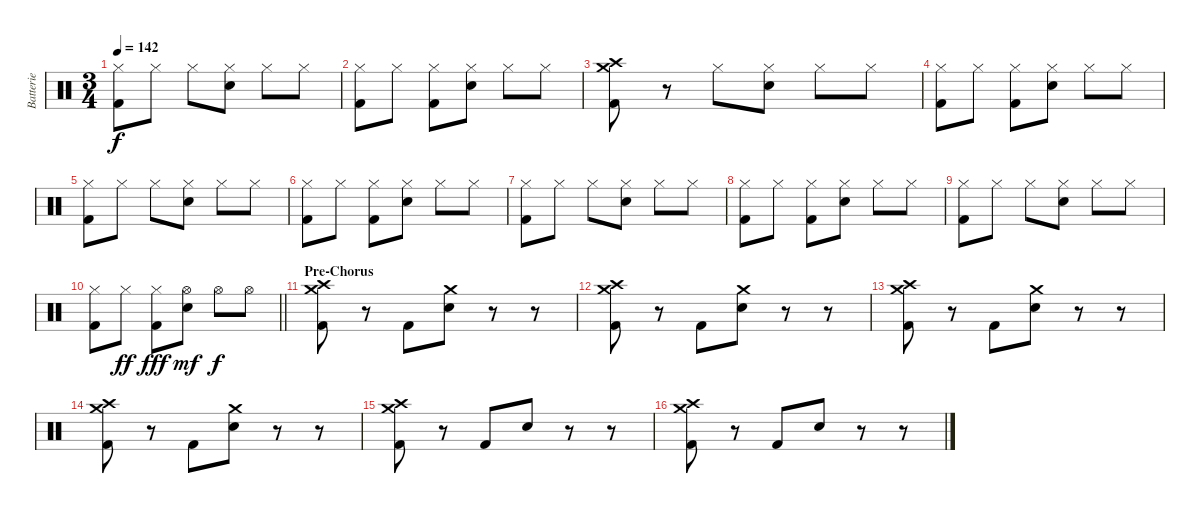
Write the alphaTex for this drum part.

\track ("Batterie" "Batterie") {instrument percussion}
\staff {score}
\articulation defaults
\ts (3 4)
\tempo 142
\clef neutral
\ks c
("Hi-Hat (closed)" "Kick (hit) 2").8{dy f} "Hi-Hat (closed)".8 "Hi-Hat (closed)".8 ("Hi-Hat (closed)" "Electric Snare (hit)").8 "Hi-Hat (closed)".8 "Hi-Hat (closed)".8 |
("Hi-Hat (closed)" "Kick (hit) 2").8 "Hi-Hat (closed)".8 ("Hi-Hat (closed)" "Kick (hit) 2").8 ("Hi-Hat (closed)" "Electric Snare (hit)").8 "Hi-Hat (closed)".8 "Hi-Hat (closed)".8 |
("Crash medium (hit)" "Crash high (hit)" "Kick (hit) 2").8 r.8 "Hi-Hat (closed)".8 ("Hi-Hat (closed)" "Electric Snare (hit)").8 "Hi-Hat (closed)".8 "Hi-Hat (closed)".8 |
("Hi-Hat (closed)" "Kick (hit) 2").8 "Hi-Hat (closed)".8 ("Hi-Hat (closed)" "Kick (hit) 2").8 ("Hi-Hat (closed)" "Electric Snare (hit)").8 "Hi-Hat (closed)".8 "Hi-Hat (closed)".8 |
("Hi-Hat (closed)" "Kick (hit) 2").8 "Hi-Hat (closed)".8 "Hi-Hat (closed)".8 ("Hi-Hat (closed)" "Electric Snare (hit)").8 "Hi-Hat (closed)".8 "Hi-Hat (closed)".8 |
("Hi-Hat (closed)" "Kick (hit) 2").8 "Hi-Hat (closed)".8 ("Hi-Hat (closed)" "Kick (hit) 2").8 ("Hi-Hat (closed)" "Electric Snare (hit)").8 "Hi-Hat (closed)".8 "Hi-Hat (closed)".8 |
("Hi-Hat (closed)" "Kick (hit) 2").8 "Hi-Hat (closed)".8 "Hi-Hat (closed)".8 ("Hi-Hat (closed)" "Electric Snare (hit)").8 "Hi-Hat (closed)".8 "Hi-Hat (closed)".8 |
("Hi-Hat (closed)" "Kick (hit) 2").8 "Hi-Hat (closed)".8 ("Hi-Hat (closed)" "Kick (hit) 2").8 ("Hi-Hat (closed)" "Electric Snare (hit)").8 "Hi-Hat (closed)".8 "Hi-Hat (closed)".8 |
("Hi-Hat (closed)" "Kick (hit) 2").8 "Hi-Hat (closed)".8 "Hi-Hat (closed)".8 ("Hi-Hat (closed)" "Electric Snare (hit)").8 "Hi-Hat (closed)".8 "Hi-Hat (closed)".8 |
\barLineRight lightlight
("Hi-Hat (closed)" "Kick (hit) 2").8 "Hi-Hat (closed)".8{dy ff} ("Hi-Hat (closed)" "Kick (hit) 2").8{dy fff} ("Hi-Hat (open)" "Electric Snare (hit)").8{dy mf} "Hi-Hat (open)".8{dy f} "Hi-Hat (open)".8 |
\section ("" "Pre-Chorus")
("Crash medium (hit)" "Crash high (hit)" "Kick (hit) 2").8 r.8 "Kick (hit) 2".8 ("Crash medium (hit)" "Electric Snare (hit)").8 r.8 r.8 |
("Crash medium (hit)" "Crash high (hit)" "Kick (hit) 2").8 r.8 "Kick (hit) 2".8 ("Crash medium (hit)" "Electric Snare (hit)").8 r.8 r.8 |
("Crash medium (hit)" "Crash high (hit)" "Kick (hit) 2").8 r.8 "Kick (hit) 2".8 ("Crash medium (hit)" "Electric Snare (hit)").8 r.8 r.8 |
("Crash medium (hit)" "Crash high (hit)" "Kick (hit) 2").8 r.8 "Kick (hit) 2".8 ("Crash medium (hit)" "Electric Snare (hit)").8 r.8 r.8 |
("Crash medium (hit)" "Crash high (hit)" "Kick (hit) 2").8 r.8 "Kick (hit) 2".8 "Electric Snare (hit)".8 r.8 r.8 |
("Crash medium (hit)" "Crash high (hit)" "Kick (hit) 2").8 r.8 "Kick (hit) 2".8 "Electric Snare (hit)".8 r.8 r.8
